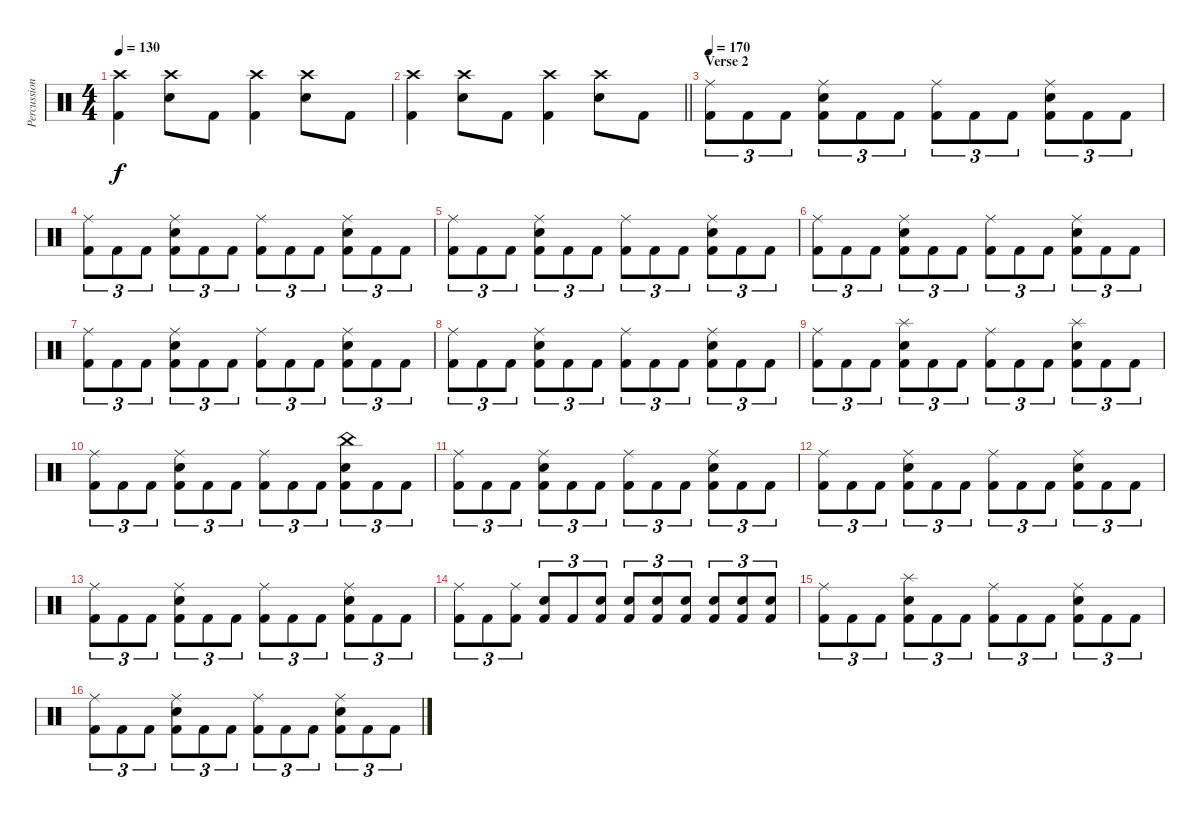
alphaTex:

\track ("Percussion" "Percussion") {instrument percussion}
\staff {score}
\articulation defaults
\ts (4 4)
\tempo 130
\clef neutral
\ks c
("Crash high (hit)" "Kick (hit) 2").4{dy f} ("Crash high (hit)" "Electric Snare (hit)").8 "Kick (hit) 2".8 ("Crash high (hit)" "Kick (hit) 2").4 ("Crash high (hit)" "Electric Snare (hit)").8 "Kick (hit) 2".8 |
\barLineRight lightlight
("Crash high (hit)" "Kick (hit) 2").4 ("Crash high (hit)" "Electric Snare (hit)").8 "Kick (hit) 2".8 ("Crash high (hit)" "Kick (hit) 2").4 ("Crash high (hit)" "Electric Snare (hit)").8 "Kick (hit) 2".8 |
\section ("" "Verse 2")
\tempo 170
("Ride (middle)" "Kick (hit) 2").8{tu (3 2)} "Kick (hit) 2".8{tu (3 2)} "Kick (hit) 2".8{tu (3 2)} ("Ride (middle)" "Electric Snare (hit)" "Kick (hit) 2").8{tu (3 2)} "Kick (hit) 2".8{tu (3 2)} "Kick (hit) 2".8{tu (3 2)} ("Ride (middle)" "Kick (hit) 2").8{tu (3 2)} "Kick (hit) 2".8{tu (3 2)} "Kick (hit) 2".8{tu (3 2)} ("Ride (middle)" "Electric Snare (hit)" "Kick (hit) 2").8{tu (3 2)} "Kick (hit) 2".8{tu (3 2)} "Kick (hit) 2".8{tu (3 2)} |
("Ride (middle)" "Kick (hit) 2").8{tu (3 2)} "Kick (hit) 2".8{tu (3 2)} "Kick (hit) 2".8{tu (3 2)} ("Ride (middle)" "Electric Snare (hit)" "Kick (hit) 2").8{tu (3 2)} "Kick (hit) 2".8{tu (3 2)} "Kick (hit) 2".8{tu (3 2)} ("Ride (middle)" "Kick (hit) 2").8{tu (3 2)} "Kick (hit) 2".8{tu (3 2)} "Kick (hit) 2".8{tu (3 2)} ("Ride (middle)" "Electric Snare (hit)" "Kick (hit) 2").8{tu (3 2)} "Kick (hit) 2".8{tu (3 2)} "Kick (hit) 2".8{tu (3 2)} |
("Ride (middle)" "Kick (hit) 2").8{tu (3 2)} "Kick (hit) 2".8{tu (3 2)} "Kick (hit) 2".8{tu (3 2)} ("Ride (middle)" "Electric Snare (hit)" "Kick (hit) 2").8{tu (3 2)} "Kick (hit) 2".8{tu (3 2)} "Kick (hit) 2".8{tu (3 2)} ("Ride (middle)" "Kick (hit) 2").8{tu (3 2)} "Kick (hit) 2".8{tu (3 2)} "Kick (hit) 2".8{tu (3 2)} ("Ride (middle)" "Electric Snare (hit)" "Kick (hit) 2").8{tu (3 2)} "Kick (hit) 2".8{tu (3 2)} "Kick (hit) 2".8{tu (3 2)} |
("Ride (middle)" "Kick (hit) 2").8{tu (3 2)} "Kick (hit) 2".8{tu (3 2)} "Kick (hit) 2".8{tu (3 2)} ("Ride (middle)" "Electric Snare (hit)" "Kick (hit) 2").8{tu (3 2)} "Kick (hit) 2".8{tu (3 2)} "Kick (hit) 2".8{tu (3 2)} ("Ride (middle)" "Kick (hit) 2").8{tu (3 2)} "Kick (hit) 2".8{tu (3 2)} "Kick (hit) 2".8{tu (3 2)} ("Ride (middle)" "Electric Snare (hit)" "Kick (hit) 2").8{tu (3 2)} "Kick (hit) 2".8{tu (3 2)} "Kick (hit) 2".8{tu (3 2)} |
("Ride (middle)" "Kick (hit) 2").8{tu (3 2)} "Kick (hit) 2".8{tu (3 2)} "Kick (hit) 2".8{tu (3 2)} ("Ride (middle)" "Electric Snare (hit)" "Kick (hit) 2").8{tu (3 2)} "Kick (hit) 2".8{tu (3 2)} "Kick (hit) 2".8{tu (3 2)} ("Ride (middle)" "Kick (hit) 2").8{tu (3 2)} "Kick (hit) 2".8{tu (3 2)} "Kick (hit) 2".8{tu (3 2)} ("Ride (middle)" "Electric Snare (hit)" "Kick (hit) 2").8{tu (3 2)} "Kick (hit) 2".8{tu (3 2)} "Kick (hit) 2".8{tu (3 2)} |
("Ride (middle)" "Kick (hit) 2").8{tu (3 2)} "Kick (hit) 2".8{tu (3 2)} "Kick (hit) 2".8{tu (3 2)} ("Ride (middle)" "Electric Snare (hit)" "Kick (hit) 2").8{tu (3 2)} "Kick (hit) 2".8{tu (3 2)} "Kick (hit) 2".8{tu (3 2)} ("Ride (middle)" "Kick (hit) 2").8{tu (3 2)} "Kick (hit) 2".8{tu (3 2)} "Kick (hit) 2".8{tu (3 2)} ("Ride (middle)" "Electric Snare (hit)" "Kick (hit) 2").8{tu (3 2)} "Kick (hit) 2".8{tu (3 2)} "Kick (hit) 2".8{tu (3 2)} |
("Ride (middle)" "Kick (hit) 2").8{tu (3 2)} "Kick (hit) 2".8{tu (3 2)} "Kick (hit) 2".8{tu (3 2)} ("Splash (hit)" "Electric Snare (hit)" "Kick (hit) 2").8{tu (3 2)} "Kick (hit) 2".8{tu (3 2)} "Kick (hit) 2".8{tu (3 2)} ("Ride (middle)" "Kick (hit) 2").8{tu (3 2)} "Kick (hit) 2".8{tu (3 2)} "Kick (hit) 2".8{tu (3 2)} ("Splash (hit)" "Electric Snare (hit)" "Kick (hit) 2").8{tu (3 2)} "Kick (hit) 2".8{tu (3 2)} "Kick (hit) 2".8{tu (3 2)} |
("Ride (middle)" "Kick (hit) 2").8{tu (3 2)} "Kick (hit) 2".8{tu (3 2)} "Kick (hit) 2".8{tu (3 2)} ("Ride (middle)" "Electric Snare (hit)" "Kick (hit) 2").8{tu (3 2)} "Kick (hit) 2".8{tu (3 2)} "Kick (hit) 2".8{tu (3 2)} ("Ride (middle)" "Kick (hit) 2").8{tu (3 2)} "Kick (hit) 2".8{tu (3 2)} "Kick (hit) 2".8{tu (3 2)} ("China (hit)" "Electric Snare (hit)" "Kick (hit) 2").8{tu (3 2)} "Kick (hit) 2".8{tu (3 2)} "Kick (hit) 2".8{tu (3 2)} |
("Ride (middle)" "Kick (hit) 2").8{tu (3 2)} "Kick (hit) 2".8{tu (3 2)} "Kick (hit) 2".8{tu (3 2)} ("Ride (middle)" "Electric Snare (hit)" "Kick (hit) 2").8{tu (3 2)} "Kick (hit) 2".8{tu (3 2)} "Kick (hit) 2".8{tu (3 2)} ("Ride (middle)" "Kick (hit) 2").8{tu (3 2)} "Kick (hit) 2".8{tu (3 2)} "Kick (hit) 2".8{tu (3 2)} ("Ride (middle)" "Electric Snare (hit)" "Kick (hit) 2").8{tu (3 2)} "Kick (hit) 2".8{tu (3 2)} "Kick (hit) 2".8{tu (3 2)} |
("Ride (middle)" "Kick (hit) 2").8{tu (3 2)} "Kick (hit) 2".8{tu (3 2)} "Kick (hit) 2".8{tu (3 2)} ("Ride (middle)" "Electric Snare (hit)" "Kick (hit) 2").8{tu (3 2)} "Kick (hit) 2".8{tu (3 2)} "Kick (hit) 2".8{tu (3 2)} ("Ride (middle)" "Kick (hit) 2").8{tu (3 2)} "Kick (hit) 2".8{tu (3 2)} "Kick (hit) 2".8{tu (3 2)} ("Ride (middle)" "Electric Snare (hit)" "Kick (hit) 2").8{tu (3 2)} "Kick (hit) 2".8{tu (3 2)} "Kick (hit) 2".8{tu (3 2)} |
("Ride (middle)" "Kick (hit) 2").8{tu (3 2)} "Kick (hit) 2".8{tu (3 2)} "Kick (hit) 2".8{tu (3 2)} ("Ride (middle)" "Electric Snare (hit)" "Kick (hit) 2").8{tu (3 2)} "Kick (hit) 2".8{tu (3 2)} "Kick (hit) 2".8{tu (3 2)} ("Ride (middle)" "Kick (hit) 2").8{tu (3 2)} "Kick (hit) 2".8{tu (3 2)} "Kick (hit) 2".8{tu (3 2)} ("Ride (middle)" "Electric Snare (hit)" "Kick (hit) 2").8{tu (3 2)} "Kick (hit) 2".8{tu (3 2)} "Kick (hit) 2".8{tu (3 2)} |
("Ride (middle)" "Kick (hit) 2").8{tu (3 2)} "Kick (hit) 2".8{tu (3 2)} ("Ride (middle)" "Kick (hit) 2").8{tu (3 2)} ("Electric Snare (hit)" "Kick (hit) 2").8{tu (3 2)} "Kick (hit) 2".8{tu (3 2)} ("Electric Snare (hit)" "Kick (hit) 2").8{tu (3 2)} ("Electric Snare (hit)" "Kick (hit) 2").8{tu (3 2)} ("Electric Snare (hit)" "Kick (hit) 2").8{tu (3 2)} ("Electric Snare (hit)" "Kick (hit) 2").8{tu (3 2)} ("Electric Snare (hit)" "Kick (hit) 2").8{tu (3 2)} ("Electric Snare (hit)" "Kick (hit) 2").8{tu (3 2)} ("Electric Snare (hit)" "Kick (hit) 2").8{tu (3 2)} |
("Ride (middle)" "Kick (hit) 2").8{tu (3 2)} "Kick (hit) 2".8{tu (3 2)} "Kick (hit) 2".8{tu (3 2)} ("Splash (hit)" "Electric Snare (hit)" "Kick (hit) 2").8{tu (3 2)} "Kick (hit) 2".8{tu (3 2)} "Kick (hit) 2".8{tu (3 2)} ("Ride (middle)" "Kick (hit) 2").8{tu (3 2)} "Kick (hit) 2".8{tu (3 2)} "Kick (hit) 2".8{tu (3 2)} ("Ride (middle)" "Electric Snare (hit)" "Kick (hit) 2").8{tu (3 2)} "Kick (hit) 2".8{tu (3 2)} "Kick (hit) 2".8{tu (3 2)} |
("Ride (middle)" "Kick (hit) 2").8{tu (3 2)} "Kick (hit) 2".8{tu (3 2)} "Kick (hit) 2".8{tu (3 2)} ("Ride (middle)" "Electric Snare (hit)" "Kick (hit) 2").8{tu (3 2)} "Kick (hit) 2".8{tu (3 2)} "Kick (hit) 2".8{tu (3 2)} ("Ride (middle)" "Kick (hit) 2").8{tu (3 2)} "Kick (hit) 2".8{tu (3 2)} "Kick (hit) 2".8{tu (3 2)} ("Ride (middle)" "Electric Snare (hit)" "Kick (hit) 2").8{tu (3 2)} "Kick (hit) 2".8{tu (3 2)} "Kick (hit) 2".8{tu (3 2)}
